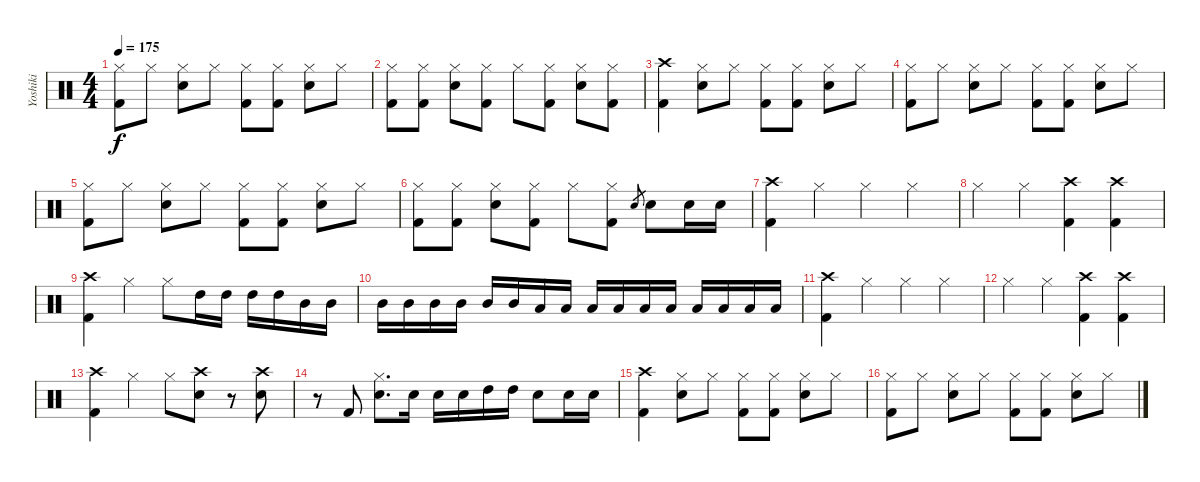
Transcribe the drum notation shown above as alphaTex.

\track ("Yoshiki" "Yoshiki") {instrument percussion}
\staff {score}
\articulation defaults
\ts (4 4)
\tempo 175
\clef neutral
\ks c
("Hi-Hat (closed)" "Kick (hit) 2").8{dy f} "Hi-Hat (closed)".8 ("Hi-Hat (closed)" "Electric Snare (hit)").8 "Hi-Hat (closed)".8 ("Hi-Hat (closed)" "Kick (hit) 2").8 ("Hi-Hat (closed)" "Kick (hit) 2").8 ("Hi-Hat (closed)" "Electric Snare (hit)").8 "Hi-Hat (closed)".8 |
("Hi-Hat (closed)" "Kick (hit) 2").8 ("Hi-Hat (closed)" "Kick (hit) 2").8 ("Hi-Hat (closed)" "Electric Snare (hit)").8 ("Hi-Hat (closed)" "Kick (hit) 2").8 "Hi-Hat (closed)".8 ("Hi-Hat (closed)" "Kick (hit) 2").8 ("Hi-Hat (closed)" "Electric Snare (hit)").8 ("Hi-Hat (closed)" "Kick (hit) 2").8 |
("Crash high (hit)" "Kick (hit) 2").4 ("Hi-Hat (closed)" "Electric Snare (hit)").8 "Hi-Hat (closed)".8 ("Hi-Hat (closed)" "Kick (hit) 2").8 ("Hi-Hat (closed)" "Kick (hit) 2").8 ("Hi-Hat (closed)" "Electric Snare (hit)").8 "Hi-Hat (closed)".8 |
("Hi-Hat (closed)" "Kick (hit) 2").8 "Hi-Hat (closed)".8 ("Hi-Hat (closed)" "Electric Snare (hit)").8 "Hi-Hat (closed)".8 ("Hi-Hat (closed)" "Kick (hit) 2").8 ("Hi-Hat (closed)" "Kick (hit) 2").8 ("Hi-Hat (closed)" "Electric Snare (hit)").8 "Hi-Hat (closed)".8 |
("Hi-Hat (closed)" "Kick (hit) 2").8 "Hi-Hat (closed)".8 ("Hi-Hat (closed)" "Electric Snare (hit)").8 "Hi-Hat (closed)".8 ("Hi-Hat (closed)" "Kick (hit) 2").8 ("Hi-Hat (closed)" "Kick (hit) 2").8 ("Hi-Hat (closed)" "Electric Snare (hit)").8 "Hi-Hat (closed)".8 |
("Hi-Hat (closed)" "Kick (hit) 2").8 ("Hi-Hat (closed)" "Kick (hit) 2").8 ("Hi-Hat (closed)" "Electric Snare (hit)").8 ("Hi-Hat (closed)" "Kick (hit) 2").8 "Hi-Hat (closed)".8 ("Hi-Hat (closed)" "Kick (hit) 2").8 "Electric Snare (hit)".8{gr} "Electric Snare (hit)".8 "Electric Snare (hit)".16 "Electric Snare (hit)".16 |
("Crash high (hit)" "Kick (hit) 2").4 "Hi-Hat (closed)".4 "Hi-Hat (closed)".4 "Hi-Hat (closed)".4 |
"Hi-Hat (closed)".4 "Hi-Hat (closed)".4 ("Crash high (hit)" "Kick (hit) 2").4 ("Crash high (hit)" "Kick (hit) 2").4 |
("Crash high (hit)" "Kick (hit) 2").4 "Hi-Hat (closed)".4 "Hi-Hat (closed)".8 "High Tom (hit)".16 "High Tom (hit)".16 "High Tom (hit)".16 "High Tom (hit)".16 "Mid Tom (hit)".16 "Mid Tom (hit)".16 |
"Mid Tom (hit)".16 "Mid Tom (hit)".16 "Mid Tom (hit)".16 "Mid Tom (hit)".16 "Mid Tom (hit)".16 "Mid Tom (hit)".16 "Low Tom (hit)".16 "Low Tom (hit)".16 "Low Tom (hit)".16 "Low Tom (hit)".16 "Low Tom (hit)".16 "Low Tom (hit)".16 "Low Tom (hit)".16 "Low Tom (hit)".16 "Low Tom (hit)".16 "Low Tom (hit)".16 |
("Crash high (hit)" "Kick (hit) 2").4 "Hi-Hat (closed)".4 "Hi-Hat (closed)".4 "Hi-Hat (closed)".4 |
"Hi-Hat (closed)".4 "Hi-Hat (closed)".4 ("Crash high (hit)" "Kick (hit) 2").4 ("Crash high (hit)" "Kick (hit) 2").4 |
("Crash high (hit)" "Kick (hit) 2").4 "Hi-Hat (closed)".4 "Hi-Hat (closed)".8 ("Crash high (hit)" "Electric Snare (hit)").8 r.8 ("Crash high (hit)" "Electric Snare (hit)").8 |
r.8 "Kick (hit) 2".8 ("Hi-Hat (closed)" "Electric Snare (hit)").8{d} "Electric Snare (hit)".16 "Electric Snare (hit)".16 "Electric Snare (hit)".16 "High Tom (hit)".16 "High Tom (hit)".16 "Electric Snare (hit)".8 "Electric Snare (hit)".16 "Electric Snare (hit)".16 |
("Crash high (hit)" "Kick (hit) 2").4 ("Hi-Hat (closed)" "Electric Snare (hit)").8 "Hi-Hat (closed)".8 ("Hi-Hat (closed)" "Kick (hit) 2").8 ("Hi-Hat (closed)" "Kick (hit) 2").8 ("Hi-Hat (closed)" "Electric Snare (hit)").8 "Hi-Hat (closed)".8 |
("Hi-Hat (closed)" "Kick (hit) 2").8 "Hi-Hat (closed)".8 ("Hi-Hat (closed)" "Electric Snare (hit)").8 "Hi-Hat (closed)".8 ("Hi-Hat (closed)" "Kick (hit) 2").8 ("Hi-Hat (closed)" "Kick (hit) 2").8 ("Hi-Hat (closed)" "Electric Snare (hit)").8 "Hi-Hat (closed)".8
